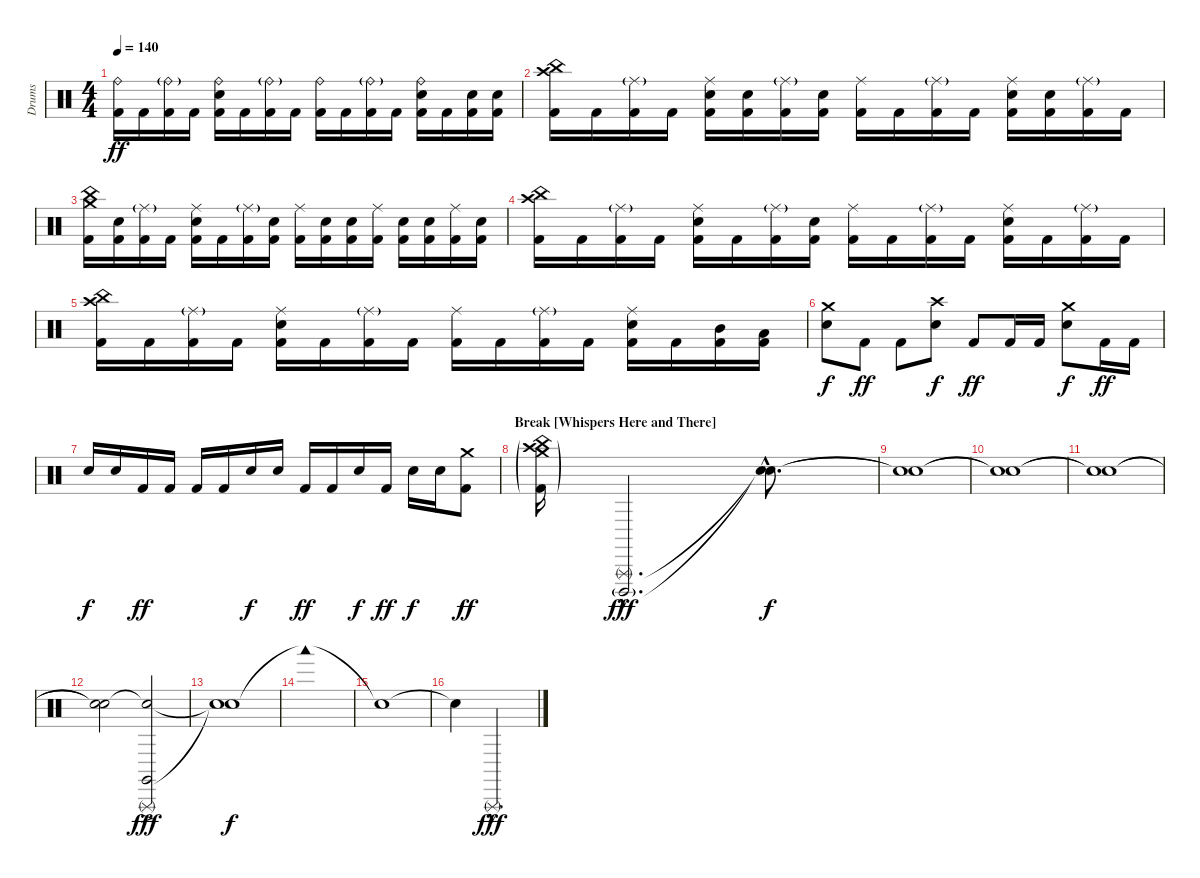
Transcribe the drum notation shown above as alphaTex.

\track ("Drums" "Drums") {instrument percussion}
\staff {score}
\articulation defaults
\ts (4 4)
\tempo 140
\clef neutral
\ks c
("Ride (bell)" "Kick (hit) 2").16{dy ff} "Kick (hit) 2".16 ("Ride (bell)"{g} "Kick (hit) 2").16 "Kick (hit) 2".16 ("Ride (bell)" "Snare (hit) 2" "Kick (hit) 2").16 "Kick (hit) 2".16 ("Ride (bell)"{g} "Kick (hit) 2").16 "Kick (hit) 2".16 ("Ride (bell)" "Kick (hit) 2").16 "Kick (hit) 2".16 ("Ride (bell)"{g} "Kick (hit) 2").16 "Kick (hit) 2".16 ("Ride (bell)" "Snare (hit) 2" "Kick (hit) 2").16 "Kick (hit) 2".16 ("Snare (hit) 2" "Kick (hit) 2").16 ("Snare (hit) 2" "Kick (hit) 2").16 |
("China (hit)" "Crash high (hit)" "Kick (hit) 2").16 "Kick (hit) 2".16 ("Ride (middle)"{g} "Kick (hit) 2").16 "Kick (hit) 2".16 ("Ride (middle)" "Snare (hit) 2" "Kick (hit) 2").16 ("Snare (hit) 2" "Kick (hit) 2").16 ("Ride (middle)"{g} "Kick (hit) 2").16 ("Snare (hit) 2" "Kick (hit) 2").16 ("Ride (middle)" "Kick (hit) 2").16 "Kick (hit) 2".16 ("Ride (middle)"{g} "Kick (hit) 2").16 "Kick (hit) 2".16 ("Ride (middle)" "Snare (hit) 2" "Kick (hit) 2").16 ("Snare (hit) 2" "Kick (hit) 2").16 ("Ride (middle)"{g} "Kick (hit) 2").16 "Kick (hit) 2".16 |
("China (hit)" "Crash medium (hit)" "Kick (hit) 2").16 ("Snare (hit) 2" "Kick (hit) 2").16 ("Ride (middle)"{g} "Kick (hit) 2").16 "Kick (hit) 2".16 ("Ride (middle)" "Snare (hit) 2" "Kick (hit) 2").16 "Kick (hit) 2".16 ("Ride (middle)"{g} "Kick (hit) 2").16 ("Snare (hit) 2" "Kick (hit) 2").16 ("Ride (middle)" "Kick (hit) 2").16 ("Snare (hit) 2" "Kick (hit) 2").16 ("Snare (hit) 2" "Kick (hit) 2").16 ("Ride (middle)" "Kick (hit) 2").16 ("Snare (hit) 2" "Kick (hit) 2").16 ("Snare (hit) 2" "Kick (hit) 2").16 ("Ride (middle)" "Kick (hit) 2").16 ("Snare (hit) 2" "Kick (hit) 2").16 |
("China (hit)" "Crash high (hit)" "Kick (hit) 2").16 "Kick (hit) 2".16 ("Ride (middle)"{g} "Kick (hit) 2").16 "Kick (hit) 2".16 ("Ride (middle)" "Snare (hit) 2" "Kick (hit) 2").16 "Kick (hit) 2".16 ("Ride (middle)"{g} "Kick (hit) 2").16 ("Snare (hit) 2" "Kick (hit) 2").16 ("Ride (middle)" "Kick (hit) 2").16 "Kick (hit) 2".16 ("Ride (middle)"{g} "Kick (hit) 2").16 "Kick (hit) 2".16 ("Ride (middle)" "Snare (hit) 2" "Kick (hit) 2").16 "Kick (hit) 2".16 ("Ride (middle)"{g} "Kick (hit) 2").16 "Kick (hit) 2".16 |
("China (hit)" "Crash high (hit)" "Kick (hit) 2").16 "Kick (hit) 2".16 ("Ride (middle)"{g} "Kick (hit) 2").16 "Kick (hit) 2".16 ("Ride (middle)" "Snare (hit) 2" "Kick (hit) 2").16 "Kick (hit) 2".16 ("Ride (middle)"{g} "Kick (hit) 2").16 "Kick (hit) 2".16 ("Ride (middle)" "Kick (hit) 2").16 "Kick (hit) 2".16 ("Ride (middle)"{g} "Kick (hit) 2").16 "Kick (hit) 2".16 ("Ride (middle)" "Snare (hit) 2" "Kick (hit) 2").16 "Kick (hit) 2".16 ("Mid Tom (hit)" "Kick (hit) 2").16 ("Low Tom (hit)" "Kick (hit) 2").16 |
("Crash medium (hit)" "Snare (hit) 2").8{dy f} "Kick (hit) 2".8{dy ff} "Kick (hit) 2".8 ("Crash high (hit)" "Snare (hit) 2").8{dy f} "Kick (hit) 2".8{dy ff} "Kick (hit) 2".16 "Kick (hit) 2".16 ("Crash medium (hit)" "Snare (hit) 2").8{dy f} "Kick (hit) 2".16{dy ff} "Kick (hit) 2".16 |
"Snare (hit) 2".16{dy f} "Snare (hit) 2".16 "Kick (hit) 2".16{dy ff} "Kick (hit) 2".16 "Kick (hit) 2".16 "Kick (hit) 2".16 "Snare (hit) 2".16{dy f} "Snare (hit) 2".16 "Kick (hit) 2".16{dy ff} "Kick (hit) 2".16 "Snare (hit) 2".16{dy f} "Kick (hit) 2".16{dy ff} "Snare (hit) 2".16{dy f} "Snare (hit) 2".16 ("Crash medium (hit)" "Kick (hit) 2").8{dy ff} |
\section ("" "Break [Whispers Here and There]")
("Crash high (hit)"{g} "China (hit)"{g} "Crash medium (hit)"{g} "Kick (hit) 2"{g}).16{volume 16} ("Cuica (open)"{g hac} "Triangle (rnute)"{hac}).2{d dy fff volume 16} ("Snare (hit)"{hac t} "Snare (hit)"{hac t}).8{d dy f} |
("Snare (hit)"{t} "Snare (hit)"{t}).1 |
("Snare (hit)"{t} "Snare (hit)"{t}).1 |
("Snare (hit)"{t} "Snare (hit)"{t}).1 |
("Snare (hit)"{t} "Snare (hit)"{t}).2 ("Snare (hit)"{t} "Claves (hit)"{ac} "Triangle (rnute)"{ac}).2{dy fff} |
("Snare (hit)"{t} "Snare (hit)"{t}).1{dy f} |
"Woodblock low (hit)"{t}.1 |
"Snare (hit)"{t}.1 |
"Snare (hit)"{t}.4 "Triangle (rnute)"{hac}.2{d dy fff}
